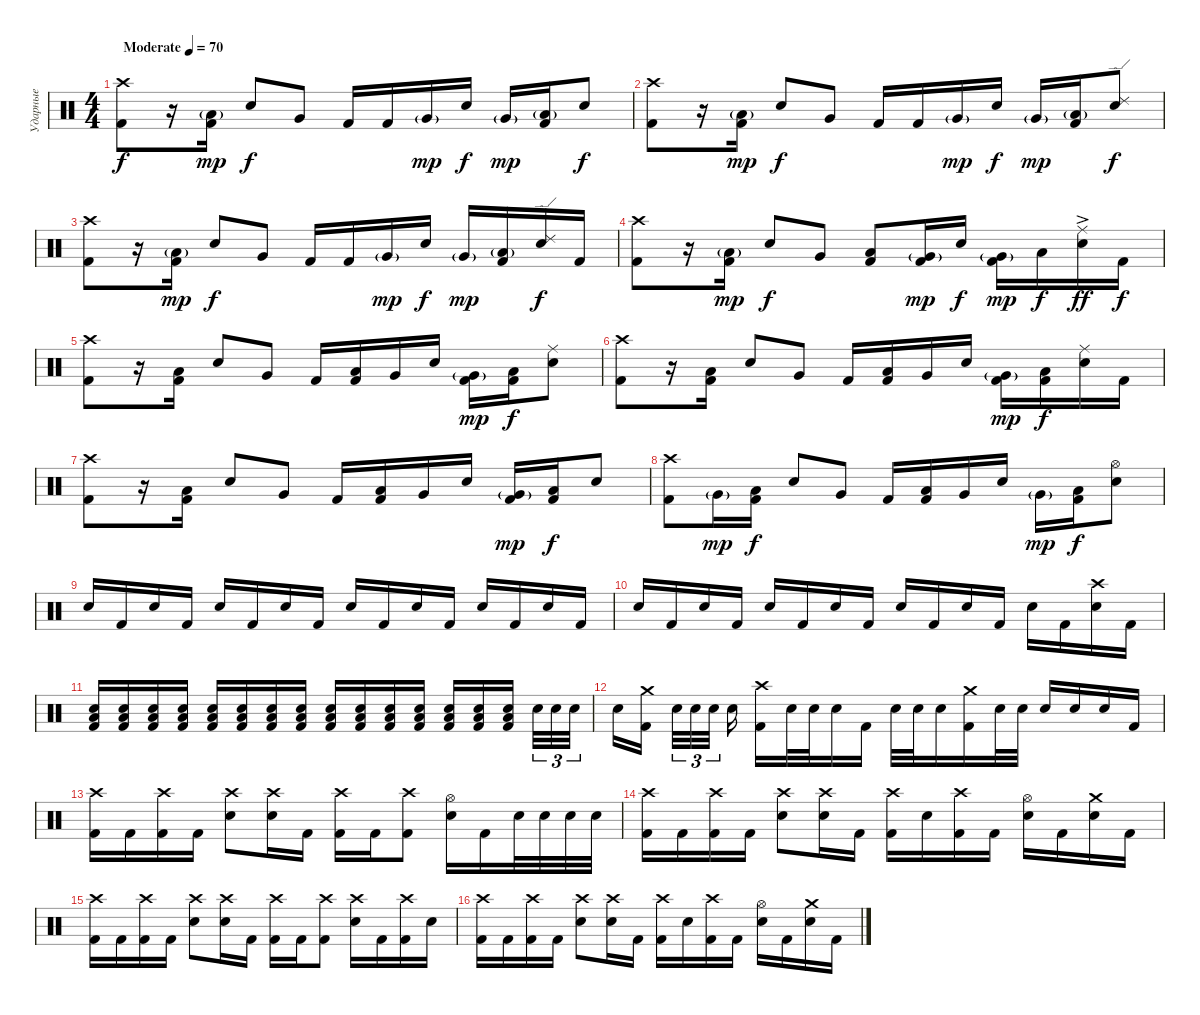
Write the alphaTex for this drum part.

\track ("Ударные" "Ударные") {instrument percussion}
\staff {score}
\articulation defaults
\ts (4 4)
\tempo (70 "Moderate")
\clef neutral
\ks c
("Crash high (hit)" "Kick (hit) 2").8{dy f} r.16 ("Low Floor Tom (hit)"{g} "Kick (hit) 2").16{dy mp} "Electric Snare (hit)".8{dy f} "Very Low Tom (hit)".8 "Kick (hit) 2".16 "Kick (hit) 2".16 "Very Low Tom (hit)"{g}.16{dy mp} "Electric Snare (hit)".16{dy f} "Very Low Tom (hit)"{g}.16{dy mp} ("Low Floor Tom (hit)"{g} "Kick (hit) 2").16 "Electric Snare (hit)".8{dy f} |
("Crash high (hit)" "Kick (hit) 2").8 r.16 ("Low Floor Tom (hit)"{g} "Kick (hit) 2").16{dy mp} "Electric Snare (hit)".8{dy f} "Very Low Tom (hit)".8 "Kick (hit) 2".16 "Kick (hit) 2".16 "Very Low Tom (hit)"{g}.16{dy mp} "Electric Snare (hit)".16{dy f} "Very Low Tom (hit)"{g}.16{dy mp} ("Low Floor Tom (hit)"{g} "Kick (hit) 2").16 ("Ride (edge) 2" "Electric Snare (hit)").8{dy f} |
("Crash high (hit)" "Kick (hit) 2").8 r.16 ("Low Floor Tom (hit)"{g} "Kick (hit) 2").16{dy mp} "Electric Snare (hit)".8{dy f} "Very Low Tom (hit)".8 "Kick (hit) 2".16 "Kick (hit) 2".16 "Very Low Tom (hit)"{g}.16{dy mp} "Electric Snare (hit)".16{dy f} "Very Low Tom (hit)"{g}.16{dy mp} ("Low Floor Tom (hit)"{g} "Kick (hit) 2").16 ("Ride (edge) 2" "Electric Snare (hit)").16{dy f} "Kick (hit) 2".16 |
("Crash high (hit)" "Kick (hit) 2").8 r.16 ("Low Floor Tom (hit)"{g} "Kick (hit) 2").16{dy mp} "Electric Snare (hit)".8{dy f} "Very Low Tom (hit)".8 ("Low Floor Tom (hit)" "Kick (hit) 2").8 ("Very Low Tom (hit)"{g} "Kick (hit) 2").16{dy mp} "Electric Snare (hit)".16{dy f} ("Very Low Tom (hit)"{g} "Kick (hit) 2").16{dy mp} "Low Floor Tom (hit)".16{dy f} ("Ride (middle)"{ac} "Electric Snare (hit)").16{dy ff} "Kick (hit) 2".16{dy f} |
("Crash high (hit)" "Kick (hit) 2").8 r.16 ("Low Floor Tom (hit)" "Kick (hit) 2").16 "Electric Snare (hit)".8 "Very Low Tom (hit)".8 "Kick (hit) 2".16 ("Low Floor Tom (hit)" "Kick (hit) 2").16 "Very Low Tom (hit)".16 "Electric Snare (hit)".16 ("Very Low Tom (hit)"{g} "Kick (hit) 2").16{dy mp} ("Low Floor Tom (hit)" "Kick (hit) 2").16{dy f} ("Ride (middle)" "Electric Snare (hit)").8 |
("Crash high (hit)" "Kick (hit) 2").8 r.16 ("Low Floor Tom (hit)" "Kick (hit) 2").16 "Electric Snare (hit)".8 "Very Low Tom (hit)".8 "Kick (hit) 2".16 ("Low Floor Tom (hit)" "Kick (hit) 2").16 "Very Low Tom (hit)".16 "Electric Snare (hit)".16 ("Very Low Tom (hit)"{g} "Kick (hit) 2").16{dy mp} ("Low Floor Tom (hit)" "Kick (hit) 2").16{dy f} ("Ride (middle)" "Electric Snare (hit)").16 "Kick (hit) 2".16 |
("Crash high (hit)" "Kick (hit) 2").8 r.16 ("Low Floor Tom (hit)" "Kick (hit) 2").16 "Electric Snare (hit)".8 "Very Low Tom (hit)".8 "Kick (hit) 2".16 ("Low Floor Tom (hit)" "Kick (hit) 2").16 "Very Low Tom (hit)".16 "Electric Snare (hit)".16 ("Very Low Tom (hit)"{g} "Kick (hit) 2").16{dy mp} ("Low Floor Tom (hit)" "Kick (hit) 2").16{dy f} "Electric Snare (hit)".8 |
("Crash high (hit)" "Kick (hit) 2").8 "Very Low Tom (hit)"{g}.16{dy mp} ("Low Floor Tom (hit)" "Kick (hit) 2").16{dy f} "Electric Snare (hit)".8 "Very Low Tom (hit)".8 "Kick (hit) 2".16 ("Low Floor Tom (hit)" "Kick (hit) 2").16 "Very Low Tom (hit)".16 "Electric Snare (hit)".16 "Very Low Tom (hit)"{g}.16{dy mp} ("Low Floor Tom (hit)" "Kick (hit) 2").16{dy f} ("Hi-Hat (open)" "Electric Snare (hit)").8 |
"Electric Snare (hit)".16 "Kick (hit) 2".16 "Electric Snare (hit)".16 "Kick (hit) 2".16 "Electric Snare (hit)".16 "Kick (hit) 2".16 "Electric Snare (hit)".16 "Kick (hit) 2".16 "Electric Snare (hit)".16 "Kick (hit) 2".16 "Electric Snare (hit)".16 "Kick (hit) 2".16 "Electric Snare (hit)".16 "Kick (hit) 2".16 "Electric Snare (hit)".16 "Kick (hit) 2".16 |
"Electric Snare (hit)".16 "Kick (hit) 2".16 "Electric Snare (hit)".16 "Kick (hit) 2".16 "Electric Snare (hit)".16 "Kick (hit) 2".16 "Electric Snare (hit)".16 "Kick (hit) 2".16 "Electric Snare (hit)".16 "Kick (hit) 2".16 "Electric Snare (hit)".16 "Kick (hit) 2".16 "Electric Snare (hit)".16 "Kick (hit) 2".16 ("Crash high (hit)" "Electric Snare (hit)").16 "Kick (hit) 2".16 |
("Low Floor Tom (hit)" "Electric Snare (hit)" "Kick (hit) 2").16{volume 5} ("Low Floor Tom (hit)" "Electric Snare (hit)" "Kick (hit) 2").16{volume 12} ("Low Floor Tom (hit)" "Electric Snare (hit)" "Kick (hit) 2").16 ("Low Floor Tom (hit)" "Electric Snare (hit)" "Kick (hit) 2").16 ("Low Floor Tom (hit)" "Electric Snare (hit)" "Kick (hit) 2").16 ("Low Floor Tom (hit)" "Electric Snare (hit)" "Kick (hit) 2").16 ("Low Floor Tom (hit)" "Electric Snare (hit)" "Kick (hit) 2").16 ("Low Floor Tom (hit)" "Electric Snare (hit)" "Kick (hit) 2").16 ("Low Floor Tom (hit)" "Electric Snare (hit)" "Kick (hit) 2").16 ("Low Floor Tom (hit)" "Electric Snare (hit)" "Kick (hit) 2").16 ("Low Floor Tom (hit)" "Electric Snare (hit)" "Kick (hit) 2").16 ("Low Floor Tom (hit)" "Electric Snare (hit)" "Kick (hit) 2").16 ("Low Floor Tom (hit)" "Electric Snare (hit)" "Kick (hit) 2").16 ("Low Floor Tom (hit)" "Electric Snare (hit)" "Kick (hit) 2").16 ("Low Floor Tom (hit)" "Electric Snare (hit)" "Kick (hit) 2").16{beam splitsecondary} "Electric Snare (hit)".32{tu (3 2)} "Electric Snare (hit)".32{tu (3 2)} "Electric Snare (hit)".32{tu (3 2)} |
"Electric Snare (hit)".16 ("Crash medium (hit)" "Kick (hit) 2").16{beam splitsecondary} "Electric Snare (hit)".32{tu (3 2)} "Electric Snare (hit)".32{tu (3 2)} "Electric Snare (hit)".32{tu (3 2) beam splitsecondary} "Electric Snare (hit)".16 ("Crash high (hit)" "Kick (hit) 2").16 "Electric Snare (hit)".32 "Electric Snare (hit)".32 "Electric Snare (hit)".16 "Kick (hit) 2".16 "Electric Snare (hit)".32 "Electric Snare (hit)".32 "Electric Snare (hit)".16 ("Crash medium (hit)" "Kick (hit) 2").16 "Electric Snare (hit)".32 "Electric Snare (hit)".32 "Electric Snare (hit)".16 "Electric Snare (hit)".16 "Electric Snare (hit)".16 "Kick (hit) 2".16 |
("Crash high (hit)" "Kick (hit) 2").16 "Kick (hit) 2".16 ("Crash high (hit)" "Kick (hit) 2").16 "Kick (hit) 2".16 ("Crash high (hit)" "Electric Snare (hit)").8 ("Crash high (hit)" "Electric Snare (hit)").16 "Kick (hit) 2".16 ("Crash high (hit)" "Kick (hit) 2").16 "Kick (hit) 2".16 ("Crash high (hit)" "Kick (hit) 2").8 ("Hi-Hat (open)" "Electric Snare (hit)").16 "Kick (hit) 2".16 "Electric Snare (hit)".32 "Electric Snare (hit)".32 "Electric Snare (hit)".32 "Electric Snare (hit)".32 |
("Crash high (hit)" "Kick (hit) 2").16 "Kick (hit) 2".16 ("Crash high (hit)" "Kick (hit) 2").16 "Kick (hit) 2".16 ("Crash high (hit)" "Electric Snare (hit)").8 ("Crash high (hit)" "Electric Snare (hit)").16 "Kick (hit) 2".16 ("Crash high (hit)" "Kick (hit) 2").16 "Electric Snare (hit)".16 ("Crash high (hit)" "Kick (hit) 2").16 "Kick (hit) 2".16 ("Hi-Hat (open)" "Electric Snare (hit)").16 "Kick (hit) 2".16 ("Crash medium (hit)" "Electric Snare (hit)").16 "Kick (hit) 2".16 |
("Crash high (hit)" "Kick (hit) 2").16 "Kick (hit) 2".16 ("Crash high (hit)" "Kick (hit) 2").16 "Kick (hit) 2".16 ("Crash high (hit)" "Electric Snare (hit)").8 ("Crash high (hit)" "Electric Snare (hit)").16 "Kick (hit) 2".16 ("Crash high (hit)" "Kick (hit) 2").16 "Kick (hit) 2".16 ("Crash high (hit)" "Kick (hit) 2").8 ("Crash high (hit)" "Electric Snare (hit)").16 "Kick (hit) 2".16 ("Crash high (hit)" "Kick (hit) 2").16 "Electric Snare (hit)".16 |
("Crash high (hit)" "Kick (hit) 2").16 "Kick (hit) 2".16 ("Crash high (hit)" "Kick (hit) 2").16 "Kick (hit) 2".16 ("Crash high (hit)" "Electric Snare (hit)").8 ("Crash high (hit)" "Electric Snare (hit)").16 "Kick (hit) 2".16 ("Crash high (hit)" "Kick (hit) 2").16 "Electric Snare (hit)".16 ("Crash high (hit)" "Kick (hit) 2").16 "Kick (hit) 2".16 ("Hi-Hat (open)" "Electric Snare (hit)").16 "Kick (hit) 2".16 ("Crash medium (hit)" "Electric Snare (hit)").16 "Kick (hit) 2".16
